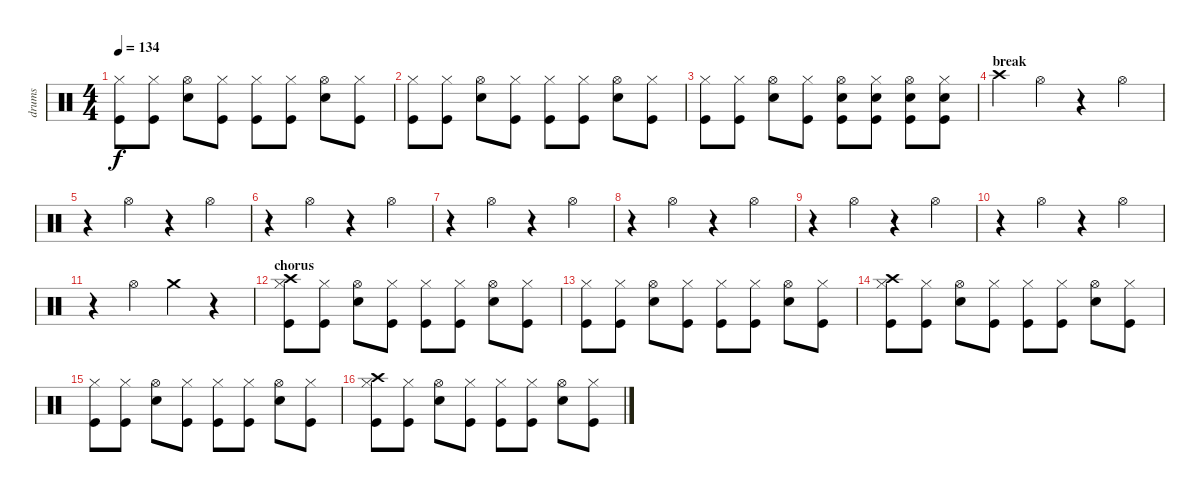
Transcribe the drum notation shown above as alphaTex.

\track ("drums" "drums") {instrument percussion}
\staff {score}
\articulation defaults
\ts (4 4)
\tempo 134
\clef neutral
\ks c
("Kick (hit)" "Hi-Hat (closed)").8{dy f} ("Kick (hit)" "Hi-Hat (closed)").8 ("Electric Snare (hit)" "Hi-Hat (open)").8 ("Kick (hit)" "Hi-Hat (closed)").8 ("Kick (hit)" "Hi-Hat (closed)").8 ("Kick (hit)" "Hi-Hat (closed)").8 ("Electric Snare (hit)" "Hi-Hat (open)").8 ("Kick (hit)" "Hi-Hat (closed)").8 |
("Kick (hit)" "Hi-Hat (closed)").8 ("Kick (hit)" "Hi-Hat (closed)").8 ("Electric Snare (hit)" "Hi-Hat (open)").8 ("Kick (hit)" "Hi-Hat (closed)").8 ("Kick (hit)" "Hi-Hat (closed)").8 ("Kick (hit)" "Hi-Hat (closed)").8 ("Electric Snare (hit)" "Hi-Hat (open)").8 ("Kick (hit)" "Hi-Hat (closed)").8 |
("Kick (hit)" "Hi-Hat (closed)").8 ("Kick (hit)" "Hi-Hat (closed)").8 ("Electric Snare (hit)" "Hi-Hat (open)").8 ("Kick (hit)" "Hi-Hat (closed)").8 ("Electric Snare (hit)" "Hi-Hat (open)" "Kick (hit)").8 ("Electric Snare (hit)" "Hi-Hat (closed)" "Kick (hit)").8 ("Electric Snare (hit)" "Hi-Hat (open)" "Kick (hit)").8 ("Electric Snare (hit)" "Hi-Hat (closed)" "Kick (hit)").8 |
\section ("" "break")
"Crash high (hit)".4 "Hi-Hat (open)".4 r.4 "Hi-Hat (open)".4 |
r.4 "Hi-Hat (open)".4 r.4 "Hi-Hat (open)".4 |
r.4 "Hi-Hat (open)".4 r.4 "Hi-Hat (open)".4 |
r.4 "Hi-Hat (open)".4 r.4 "Hi-Hat (open)".4 |
r.4 "Hi-Hat (open)".4 r.4 "Hi-Hat (open)".4 |
r.4 "Hi-Hat (open)".4 r.4 "Hi-Hat (open)".4 |
r.4 "Hi-Hat (open)".4 r.4 "Hi-Hat (open)".4 |
r.4 "Hi-Hat (open)".4 "Crash medium (hit)".4 r.4 |
\section ("" "chorus")
("Kick (hit)" "Hi-Hat (closed)" "Crash high (hit)").8 ("Kick (hit)" "Hi-Hat (closed)").8 ("Electric Snare (hit)" "Hi-Hat (open)").8 ("Kick (hit)" "Hi-Hat (closed)").8 ("Kick (hit)" "Hi-Hat (closed)").8 ("Kick (hit)" "Hi-Hat (closed)").8 ("Electric Snare (hit)" "Hi-Hat (open)").8 ("Kick (hit)" "Hi-Hat (closed)").8 |
("Kick (hit)" "Hi-Hat (closed)").8 ("Kick (hit)" "Hi-Hat (closed)").8 ("Electric Snare (hit)" "Hi-Hat (open)").8 ("Kick (hit)" "Hi-Hat (closed)").8 ("Kick (hit)" "Hi-Hat (closed)").8 ("Kick (hit)" "Hi-Hat (closed)").8 ("Electric Snare (hit)" "Hi-Hat (open)").8 ("Kick (hit)" "Hi-Hat (closed)").8 |
("Kick (hit)" "Hi-Hat (closed)" "Crash high (hit)").8 ("Kick (hit)" "Hi-Hat (closed)").8 ("Electric Snare (hit)" "Hi-Hat (open)").8 ("Kick (hit)" "Hi-Hat (closed)").8 ("Kick (hit)" "Hi-Hat (closed)").8 ("Kick (hit)" "Hi-Hat (closed)").8 ("Electric Snare (hit)" "Hi-Hat (open)").8 ("Kick (hit)" "Hi-Hat (closed)").8 |
("Kick (hit)" "Hi-Hat (closed)").8 ("Kick (hit)" "Hi-Hat (closed)").8 ("Electric Snare (hit)" "Hi-Hat (open)").8 ("Kick (hit)" "Hi-Hat (closed)").8 ("Kick (hit)" "Hi-Hat (closed)").8 ("Kick (hit)" "Hi-Hat (closed)").8 ("Electric Snare (hit)" "Hi-Hat (open)").8 ("Kick (hit)" "Hi-Hat (closed)").8 |
("Kick (hit)" "Hi-Hat (closed)" "Crash high (hit)").8 ("Kick (hit)" "Hi-Hat (closed)").8 ("Electric Snare (hit)" "Hi-Hat (open)").8 ("Kick (hit)" "Hi-Hat (closed)").8 ("Kick (hit)" "Hi-Hat (closed)").8 ("Kick (hit)" "Hi-Hat (closed)").8 ("Electric Snare (hit)" "Hi-Hat (open)").8 ("Kick (hit)" "Hi-Hat (closed)").8
